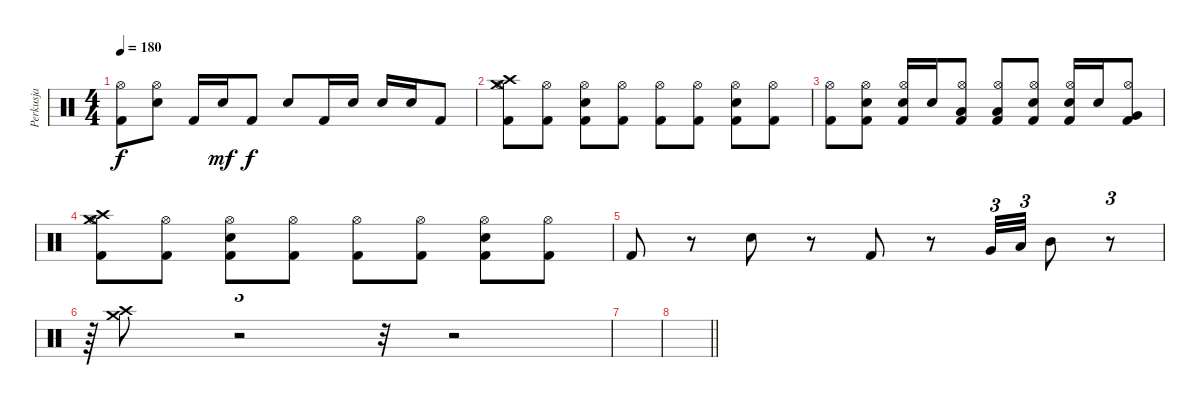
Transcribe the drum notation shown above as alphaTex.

\track ("Perkusja" "Perkusja") {instrument percussion}
\staff {score}
\articulation defaults
\ts (4 4)
\tempo 180
\clef neutral
\ks c
("Kick (hit) 2" "Hi-Hat (open)").8{dy f} ("Snare (hit) 2" "Hi-Hat (open)").8 "Kick (hit) 2".16 "Snare (hit) 2".16{dy mf} "Kick (hit) 2".8{dy f} "Snare (hit) 2".8 "Kick (hit) 2".16 "Snare (hit) 2".16 "Snare (hit) 2".16 "Snare (hit) 2".16 "Kick (hit) 2".8 |
("Crash high (hit)" "Crash medium (hit)" "Hi-Hat (open)" "Kick (hit) 2").8 ("Hi-Hat (open)" "Kick (hit) 2").8 ("Hi-Hat (open)" "Kick (hit) 2" "Snare (hit) 2").8 ("Hi-Hat (open)" "Kick (hit) 2").8 ("Hi-Hat (open)" "Kick (hit) 2").8 ("Hi-Hat (open)" "Kick (hit) 2").8 ("Kick (hit) 2" "Hi-Hat (open)" "Snare (hit) 2").8 ("Hi-Hat (open)" "Kick (hit) 2").8 |
("Hi-Hat (open)" "Kick (hit) 2").8 ("Snare (hit) 2" "Kick (hit) 2" "Hi-Hat (open)").8 ("Hi-Hat (open)" "Kick (hit) 2" "Snare (hit) 2").16 "Snare (hit) 2".16 ("Low Tom (hit)" "Hi-Hat (open)" "Kick (hit) 2").8 ("Low Tom (hit)" "Hi-Hat (open)" "Kick (hit) 2").8 ("Snare (hit) 2" "Hi-Hat (open)" "Kick (hit) 2").8 ("Hi-Hat (open)" "Kick (hit) 2" "Snare (hit) 2").16 "Snare (hit) 2".16 ("Very Low Tom (hit)" "Kick (hit) 2" "Hi-Hat (open)").8 |
("Crash high (hit)" "Crash medium (hit)" "Hi-Hat (open)" "Kick (hit) 2").8 ("Hi-Hat (open)" "Kick (hit) 2").8 ("Hi-Hat (open)" "Kick (hit) 2" "Snare (hit) 2").8 ("Hi-Hat (open)" "Kick (hit) 2").8 ("Hi-Hat (open)" "Kick (hit) 2").8 ("Kick (hit) 2" "Hi-Hat (open)").8 ("Kick (hit) 2" "Hi-Hat (open)" "Snare (hit) 2").8 ("Hi-Hat (open)" "Kick (hit) 2").8 |
"Kick (hit) 2".8 r.8 "Snare (hit) 2".8 r.8 "Kick (hit) 2".8 r.8 "Very Low Tom (hit)".32{tu (3 2)} "Low Tom (hit)".32{tu (3 2)} "Mid Tom (hit)".8 r.8{tu (3 2)} |
r.64{tu (3 2)} ("Crash high (hit)" "Crash medium (hit)").8 r.2{tu (3 2)} r.32 r.2 |
|
\barLineRight lightlight
